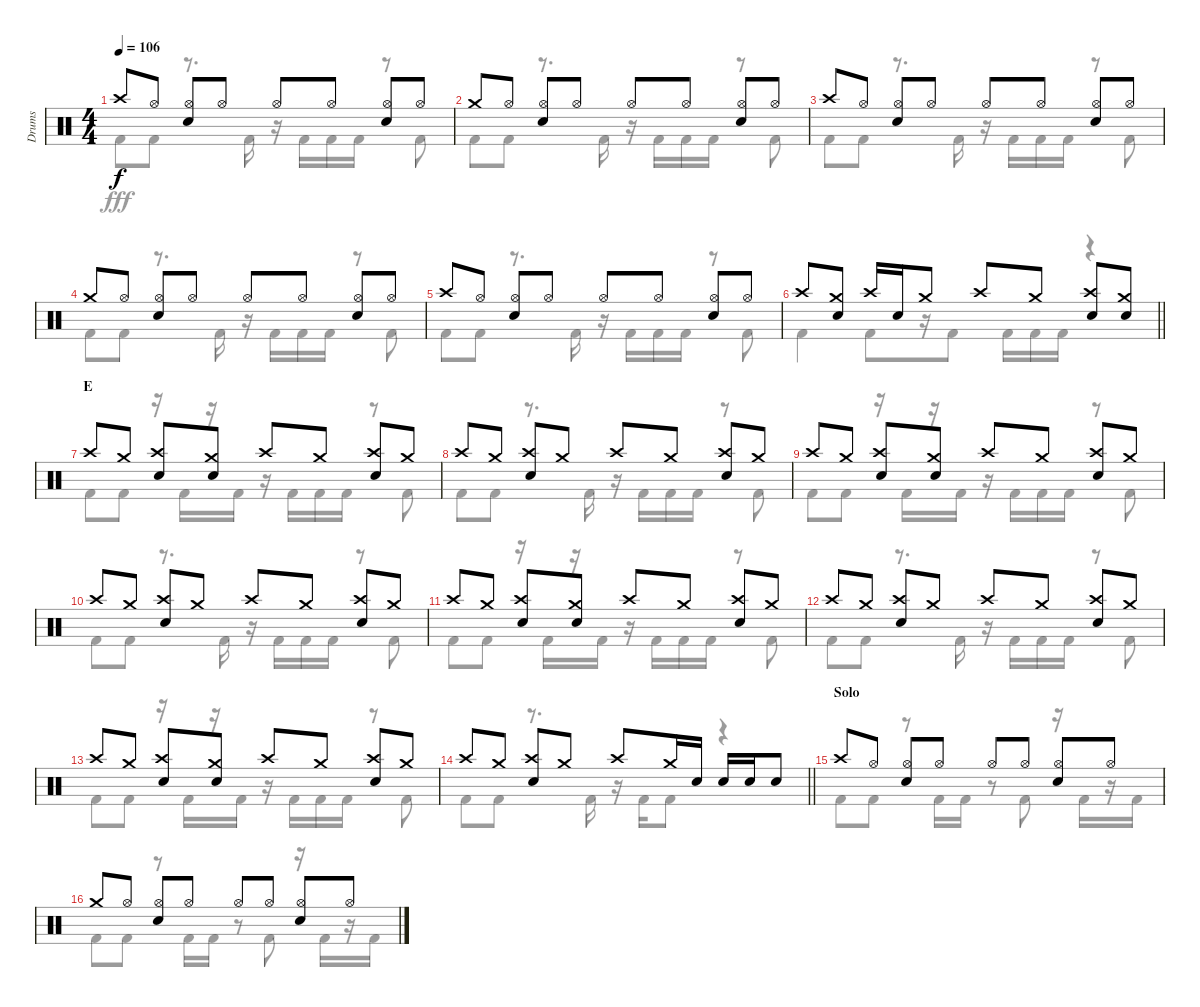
\track ("Drums" "Drums") {instrument percussion}
\staff {score}
\articulation defaults
\voice
\ts (4 4)
\tempo 106
\clef neutral
\ks c "Crash high (hit)".8{dy f} "Hi-Hat (open)".8
("Hi-Hat (open)" "Snare (hit) 2").8 "Hi-Hat (open)".8 "Hi-Hat (open)".8 "Hi-Hat (open)".8 ("Hi-Hat (open)" "Snare (hit) 2").8 "Hi-Hat (open)".8 |
"Crash medium (hit)".8 "Hi-Hat (open)".8 ("Hi-Hat (open)" "Snare (hit) 2").8 "Hi-Hat (open)".8 "Hi-Hat (open)".8 "Hi-Hat (open)".8 ("Hi-Hat (open)" "Snare (hit) 2").8 "Hi-Hat (open)".8 |
"Crash high (hit)".8 "Hi-Hat (open)".8 ("Hi-Hat (open)" "Snare (hit) 2").8 "Hi-Hat (open)".8 "Hi-Hat (open)".8 "Hi-Hat (open)".8 ("Hi-Hat (open)" "Snare (hit) 2").8 "Hi-Hat (open)".8 |
"Crash medium (hit)".8 "Hi-Hat (open)".8 ("Hi-Hat (open)" "Snare (hit) 2").8 "Hi-Hat (open)".8 "Hi-Hat (open)".8 "Hi-Hat (open)".8 ("Hi-Hat (open)" "Snare (hit) 2").8 "Hi-Hat (open)".8 |
"Crash high (hit)".8 "Hi-Hat (open)".8 ("Hi-Hat (open)" "Snare (hit) 2").8 "Hi-Hat (open)".8 "Hi-Hat (open)".8 "Hi-Hat (open)".8 ("Hi-Hat (open)" "Snare (hit) 2").8 "Hi-Hat (open)".8 |
\barLineRight lightlight "Crash high (hit)".8
("Crash medium (hit)" "Snare (hit) 2").8 "Crash high (hit)".16 "Snare (hit) 2".16 "Crash medium (hit)".8 "Crash high (hit)".8 "Crash medium (hit)".8 ("Crash high (hit)" "Snare (hit) 2").8 ("Crash medium (hit)" "Snare (hit) 2").8 |
\section ("" "E")
"Crash high (hit)".8 "Crash medium (hit)".8 ("Crash high (hit)" "Snare (hit) 2").8 ("Crash medium (hit)" "Snare (hit) 2").8 "Crash high (hit)".8 "Crash medium (hit)".8 ("Crash high (hit)" "Snare (hit) 2").8 "Crash medium (hit)".8 |
"Crash high (hit)".8 "Crash medium (hit)".8 ("Crash high (hit)" "Snare (hit) 2").8 "Crash medium (hit)".8 "Crash high (hit)".8 "Crash medium (hit)".8 ("Crash high (hit)" "Snare (hit) 2").8 "Crash medium (hit)".8 |
"Crash high (hit)".8 "Crash medium (hit)".8 ("Crash high (hit)" "Snare (hit) 2").8 ("Crash medium (hit)" "Snare (hit) 2").8 "Crash high (hit)".8 "Crash medium (hit)".8 ("Crash high (hit)" "Snare (hit) 2").8 "Crash medium (hit)".8 |
"Crash high (hit)".8 "Crash medium (hit)".8 ("Crash high (hit)" "Snare (hit) 2").8 "Crash medium (hit)".8 "Crash high (hit)".8 "Crash medium (hit)".8 ("Crash high (hit)" "Snare (hit) 2").8 "Crash medium (hit)".8 |
"Crash high (hit)".8 "Crash medium (hit)".8 ("Crash high (hit)" "Snare (hit) 2").8 ("Crash medium (hit)" "Snare (hit) 2").8 "Crash high (hit)".8 "Crash medium (hit)".8 ("Crash high (hit)" "Snare (hit) 2").8 "Crash medium (hit)".8 |
"Crash high (hit)".8 "Crash medium (hit)".8 ("Crash high (hit)" "Snare (hit) 2").8 "Crash medium (hit)".8 "Crash high (hit)".8 "Crash medium (hit)".8 ("Crash high (hit)" "Snare (hit) 2").8 "Crash medium (hit)".8 |
"Crash high (hit)".8 "Crash medium (hit)".8 ("Crash high (hit)" "Snare (hit) 2").8 ("Crash medium (hit)" "Snare (hit) 2").8 "Crash high (hit)".8 "Crash medium (hit)".8 ("Crash high (hit)" "Snare (hit) 2").8 "Crash medium (hit)".8 |
\barLineRight lightlight "Crash high (hit)".8 "Crash medium (hit)".8
("Crash high (hit)" "Snare (hit) 2").8 "Crash medium (hit)".8 "Crash high (hit)".8 "Crash medium (hit)".16 "Snare (hit) 2".16 "Snare (hit) 2".16 "Snare (hit) 2".16 "Snare (hit) 2".8 |
\section ("" "Solo")
"Crash high (hit)".8 "Hi-Hat (open)".8 ("Hi-Hat (open)" "Snare (hit) 2").8 "Hi-Hat (open)".8 "Hi-Hat (open)".8 "Hi-Hat (open)".8 ("Hi-Hat (open)" "Snare (hit) 2").8 "Hi-Hat (open)".8 |
"Crash medium (hit)".8 "Hi-Hat (open)".8 ("Hi-Hat (open)" "Snare (hit) 2").8 "Hi-Hat (open)".8 "Hi-Hat (open)".8 "Hi-Hat (open)".8 ("Hi-Hat (open)" "Snare (hit) 2").8 "Hi-Hat (open)".8
\voice
\clef neutral
\ottava regular
\simile none
\ks c "Kick (hit) 2".8{dy fff} "Kick (hit) 2".8
r.8{d} "Kick (hit) 2".16 r.16 "Kick (hit) 2".16 "Kick (hit) 2".16 "Kick (hit) 2".16 r.8 "Kick (hit) 2".8 |
"Kick (hit) 2".8 "Kick (hit) 2".8 r.8{d} "Kick (hit) 2".16 r.16 "Kick (hit) 2".16 "Kick (hit) 2".16 "Kick (hit) 2".16 r.8 "Kick (hit) 2".8 |
"Kick (hit) 2".8 "Kick (hit) 2".8 r.8{d} "Kick (hit) 2".16 r.16 "Kick (hit) 2".16 "Kick (hit) 2".16 "Kick (hit) 2".16 r.8 "Kick (hit) 2".8 |
"Kick (hit) 2".8 "Kick (hit) 2".8 r.8{d} "Kick (hit) 2".16 r.16 "Kick (hit) 2".16 "Kick (hit) 2".16 "Kick (hit) 2".16 r.8 "Kick (hit) 2".8 |
"Kick (hit) 2".8 "Kick (hit) 2".8 r.8{d} "Kick (hit) 2".16 r.16 "Kick (hit) 2".16 "Kick (hit) 2".16 "Kick (hit) 2".16 r.8 "Kick (hit) 2".8 |
\barLineRight lightlight "Kick (hit) 2".4 "Kick (hit) 2".8
r.16 "Kick (hit) 2".8 "Kick (hit) 2".16 "Kick (hit) 2".16 "Kick (hit) 2".16 r.4 |
"Kick (hit) 2".8 "Kick (hit) 2".8 r.16 "Kick (hit) 2".16 r.16 "Kick (hit) 2".16 r.16 "Kick (hit) 2".16 "Kick (hit) 2".16 "Kick (hit) 2".16 r.8 "Kick (hit) 2".8 |
"Kick (hit) 2".8 "Kick (hit) 2".8 r.8{d} "Kick (hit) 2".16 r.16 "Kick (hit) 2".16 "Kick (hit) 2".16 "Kick (hit) 2".16 r.8 "Kick (hit) 2".8 |
"Kick (hit) 2".8 "Kick (hit) 2".8 r.16 "Kick (hit) 2".16 r.16 "Kick (hit) 2".16 r.16 "Kick (hit) 2".16 "Kick (hit) 2".16 "Kick (hit) 2".16 r.8 "Kick (hit) 2".8 |
"Kick (hit) 2".8 "Kick (hit) 2".8 r.8{d} "Kick (hit) 2".16 r.16 "Kick (hit) 2".16 "Kick (hit) 2".16 "Kick (hit) 2".16 r.8 "Kick (hit) 2".8 |
"Kick (hit) 2".8 "Kick (hit) 2".8 r.16 "Kick (hit) 2".16 r.16 "Kick (hit) 2".16 r.16 "Kick (hit) 2".16 "Kick (hit) 2".16 "Kick (hit) 2".16 r.8 "Kick (hit) 2".8 |
"Kick (hit) 2".8 "Kick (hit) 2".8 r.8{d} "Kick (hit) 2".16 r.16 "Kick (hit) 2".16 "Kick (hit) 2".16 "Kick (hit) 2".16 r.8 "Kick (hit) 2".8 |
"Kick (hit) 2".8 "Kick (hit) 2".8 r.16 "Kick (hit) 2".16 r.16 "Kick (hit) 2".16 r.16 "Kick (hit) 2".16 "Kick (hit) 2".16 "Kick (hit) 2".16 r.8 "Kick (hit) 2".8 |
\barLineRight lightlight "Kick (hit) 2".8 "Kick (hit) 2".8
r.8{d} "Kick (hit) 2".16 r.16 "Kick (hit) 2".16 "Kick (hit) 2".8 r.4 |
"Kick (hit) 2".8 "Kick (hit) 2".8 r.8 "Kick (hit) 2".16 "Kick (hit) 2".16 r.8 "Kick (hit) 2".8 r.16 "Kick (hit) 2".16 r.16 "Kick (hit) 2".16 |
"Kick (hit) 2".8 "Kick (hit) 2".8 r.8 "Kick (hit) 2".16 "Kick (hit) 2".16 r.8 "Kick (hit) 2".8 r.16 "Kick (hit) 2".16 r.16 "Kick (hit) 2".16
